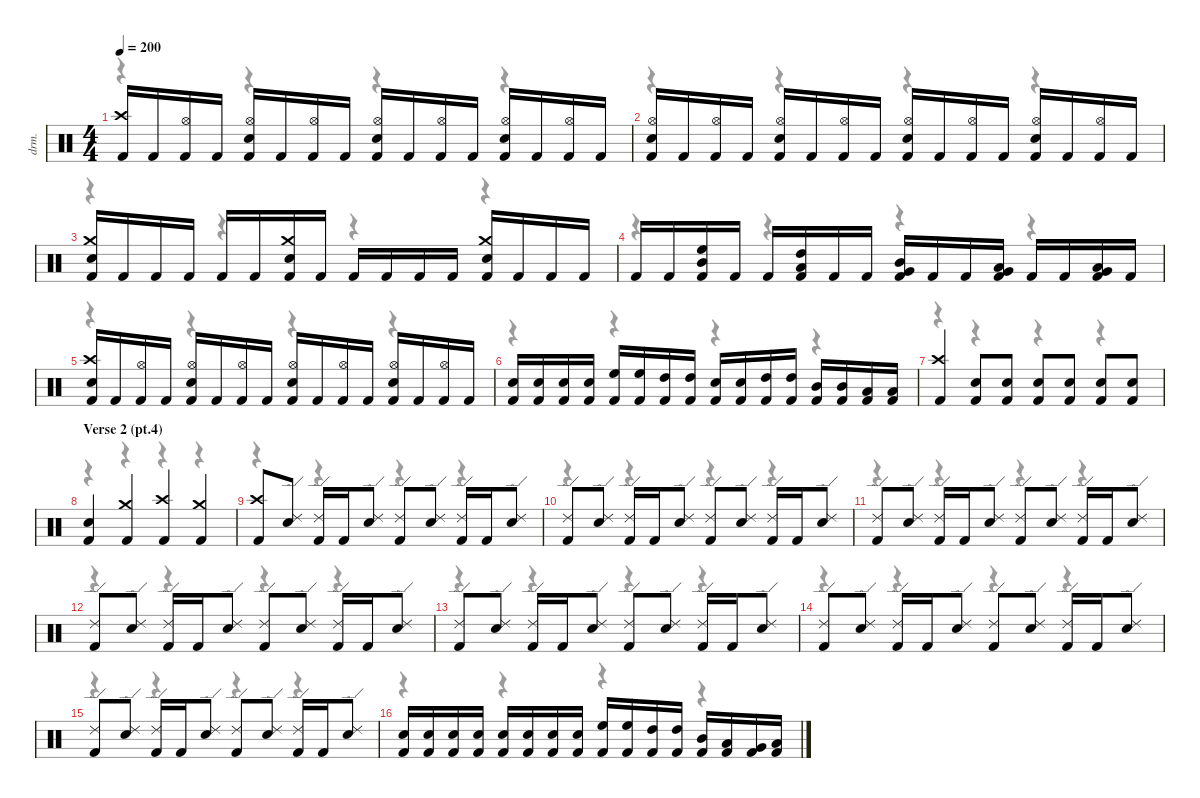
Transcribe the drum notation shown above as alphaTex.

\defaultSystemsLayout 4
\hideDynamics
\bracketExtendMode nobrackets
\otherSystemsTrackNameOrientation horizontal
\track ("David Mackintosh (Drums)" "drm.") {instrument percussion}
\staff {score}
\articulation defaults
\voice
\ts (4 4)
\tempo 200
\clef neutral
\ks c
("Kick (hit) 2" "Crash high (hit)").16{dy f} "Kick (hit) 2".16 ("Kick (hit) 2" "Hi-Hat (open)").16 "Kick (hit) 2".16 ("Kick (hit) 2" "Snare (hit) 2" "Hi-Hat (open)").16 "Kick (hit) 2".16 ("Kick (hit) 2" "Hi-Hat (open)").16 "Kick (hit) 2".16 ("Kick (hit) 2" "Snare (hit) 2" "Hi-Hat (open)").16 "Kick (hit) 2".16 ("Kick (hit) 2" "Hi-Hat (open)").16 "Kick (hit) 2".16 ("Kick (hit) 2" "Snare (hit) 2" "Hi-Hat (open)").16 "Kick (hit) 2".16 ("Kick (hit) 2" "Hi-Hat (open)").16 "Kick (hit) 2".16 |
("Kick (hit) 2" "Snare (hit) 2" "Hi-Hat (open)").16 "Kick (hit) 2".16 ("Kick (hit) 2" "Hi-Hat (open)").16 "Kick (hit) 2".16 ("Kick (hit) 2" "Snare (hit) 2" "Hi-Hat (open)").16 "Kick (hit) 2".16 ("Kick (hit) 2" "Hi-Hat (open)").16 "Kick (hit) 2".16 ("Kick (hit) 2" "Snare (hit) 2" "Hi-Hat (open)").16 "Kick (hit) 2".16 ("Kick (hit) 2" "Hi-Hat (open)").16 "Kick (hit) 2".16 ("Kick (hit) 2" "Snare (hit) 2" "Hi-Hat (open)").16 "Kick (hit) 2".16 ("Kick (hit) 2" "Hi-Hat (open)").16 "Kick (hit) 2".16 |
("Kick (hit) 2" "Snare (hit) 2" "Crash medium (hit)").16 "Kick (hit) 2".16 "Kick (hit) 2".16 "Kick (hit) 2".16 "Kick (hit) 2".16 "Kick (hit) 2".16 ("Kick (hit) 2" "Snare (hit) 2" "Crash medium (hit)").16 "Kick (hit) 2".16 "Kick (hit) 2".16 "Kick (hit) 2".16 "Kick (hit) 2".16 "Kick (hit) 2".16 ("Kick (hit) 2" "Snare (hit) 2" "Crash medium (hit)").16 "Kick (hit) 2".16 "Kick (hit) 2".16 "Kick (hit) 2".16 |
"Kick (hit) 2".16 "Kick (hit) 2".16 ("Kick (hit) 2" "High Floor Tom (hit)" "Mid Tom (hit)").16 "Kick (hit) 2".16 "Kick (hit) 2".16 ("Kick (hit) 2" "High Tom (hit)" "Low Tom (hit)").16 "Kick (hit) 2".16 "Kick (hit) 2".16 ("Kick (hit) 2" "Mid Tom (hit)" "Very Low Tom (hit)").16 "Kick (hit) 2".16 "Kick (hit) 2".16 ("Kick (hit) 2" "Low Tom (hit)" "Very Low Tom (hit)").16 "Kick (hit) 2".16 "Kick (hit) 2".16 ("Kick (hit) 2" "Very Low Tom (hit)" "Low Floor Tom (hit)").16 "Kick (hit) 2".16 |
("Kick (hit) 2" "Snare (hit) 2" "Crash high (hit)").16 "Kick (hit) 2".16 ("Kick (hit) 2" "Hi-Hat (open)").16 "Kick (hit) 2".16 ("Kick (hit) 2" "Snare (hit) 2" "Hi-Hat (open)").16 "Kick (hit) 2".16 ("Kick (hit) 2" "Hi-Hat (open)").16 "Kick (hit) 2".16 ("Kick (hit) 2" "Snare (hit) 2" "Hi-Hat (open)").16 "Kick (hit) 2".16 ("Kick (hit) 2" "Hi-Hat (open)").16 "Kick (hit) 2".16 ("Kick (hit) 2" "Snare (hit) 2" "Hi-Hat (open)").16 "Kick (hit) 2".16 ("Kick (hit) 2" "Hi-Hat (open)").16 "Kick (hit) 2".16 |
("Kick (hit) 2" "Snare (hit) 2").16 ("Kick (hit) 2" "Snare (hit) 2").16 ("Kick (hit) 2" "Snare (hit) 2").16 ("Kick (hit) 2" "Snare (hit) 2").16 ("Kick (hit) 2" "High Floor Tom (hit)").16 ("Kick (hit) 2" "High Floor Tom (hit)").16 ("Kick (hit) 2" "High Tom (hit)").16 ("Kick (hit) 2" "High Tom (hit)").16 ("Kick (hit) 2" "Snare (hit) 2").16 ("Kick (hit) 2" "Snare (hit) 2").16 ("Kick (hit) 2" "High Tom (hit)").16 ("Kick (hit) 2" "High Tom (hit)").16 ("Kick (hit) 2" "Mid Tom (hit)").16 ("Kick (hit) 2" "Mid Tom (hit)").16 ("Kick (hit) 2" "Low Tom (hit)").16 ("Kick (hit) 2" "Low Tom (hit)").16 |
("Kick (hit) 2" "Crash high (hit)").4 ("Kick (hit) 2" "Snare (hit) 2").8 ("Kick (hit) 2" "Snare (hit) 2").8 ("Kick (hit) 2" "Snare (hit) 2").8 ("Kick (hit) 2" "Snare (hit) 2").8 ("Kick (hit) 2" "Snare (hit) 2").8 ("Kick (hit) 2" "Snare (hit) 2").8 |
\section ("" "Verse 2 (pt.4)")
("Kick (hit) 2" "Snare (hit) 2").4 ("Kick (hit) 2" "Crash medium (hit)").4 ("Kick (hit) 2" "Crash high (hit)").4 ("Kick (hit) 2" "Crash medium (hit)").4 |
("Kick (hit) 2" "Crash high (hit)").8 ("Snare (hit) 2" "Ride (edge) 2").8 ("Kick (hit) 2" "Ride (edge) 2").16 "Kick (hit) 2".16 ("Snare (hit) 2" "Ride (edge) 2").8 ("Kick (hit) 2" "Ride (edge) 2").8 ("Snare (hit) 2" "Ride (edge) 2").8 ("Kick (hit) 2" "Ride (edge) 2").16 "Kick (hit) 2".16 ("Snare (hit) 2" "Ride (edge) 2").8 |
("Kick (hit) 2" "Ride (edge) 2").8 ("Snare (hit) 2" "Ride (edge) 2").8 ("Kick (hit) 2" "Ride (edge) 2").16 "Kick (hit) 2".16 ("Snare (hit) 2" "Ride (edge) 2").8 ("Kick (hit) 2" "Ride (edge) 2").8 ("Snare (hit) 2" "Ride (edge) 2").8 ("Kick (hit) 2" "Ride (edge) 2").16 "Kick (hit) 2".16 ("Snare (hit) 2" "Ride (edge) 2").8 |
("Kick (hit) 2" "Ride (edge) 2").8 ("Snare (hit) 2" "Ride (edge) 2").8 ("Kick (hit) 2" "Ride (edge) 2").16 "Kick (hit) 2".16 ("Snare (hit) 2" "Ride (edge) 2").8 ("Kick (hit) 2" "Ride (edge) 2").8 ("Snare (hit) 2" "Ride (edge) 2").8 ("Kick (hit) 2" "Ride (edge) 2").16 "Kick (hit) 2".16 ("Snare (hit) 2" "Ride (edge) 2").8 |
("Kick (hit) 2" "Ride (edge) 2").8 ("Snare (hit) 2" "Ride (edge) 2").8 ("Kick (hit) 2" "Ride (edge) 2").16 "Kick (hit) 2".16 ("Snare (hit) 2" "Ride (edge) 2").8 ("Kick (hit) 2" "Ride (edge) 2").8 ("Snare (hit) 2" "Ride (edge) 2").8 ("Kick (hit) 2" "Ride (edge) 2").16 "Kick (hit) 2".16 ("Snare (hit) 2" "Ride (edge) 2").8 |
("Kick (hit) 2" "Ride (edge) 2").8 ("Snare (hit) 2" "Ride (edge) 2").8 ("Kick (hit) 2" "Ride (edge) 2").16 "Kick (hit) 2".16 ("Snare (hit) 2" "Ride (edge) 2").8 ("Kick (hit) 2" "Ride (edge) 2").8 ("Snare (hit) 2" "Ride (edge) 2").8 ("Kick (hit) 2" "Ride (edge) 2").16 "Kick (hit) 2".16 ("Snare (hit) 2" "Ride (edge) 2").8 |
("Kick (hit) 2" "Ride (edge) 2").8 ("Snare (hit) 2" "Ride (edge) 2").8 ("Kick (hit) 2" "Ride (edge) 2").16 "Kick (hit) 2".16 ("Snare (hit) 2" "Ride (edge) 2").8 ("Kick (hit) 2" "Ride (edge) 2").8 ("Snare (hit) 2" "Ride (edge) 2").8 ("Kick (hit) 2" "Ride (edge) 2").16 "Kick (hit) 2".16 ("Snare (hit) 2" "Ride (edge) 2").8 |
("Kick (hit) 2" "Ride (edge) 2").8 ("Snare (hit) 2" "Ride (edge) 2").8 ("Kick (hit) 2" "Ride (edge) 2").16 "Kick (hit) 2".16 ("Snare (hit) 2" "Ride (edge) 2").8 ("Kick (hit) 2" "Ride (edge) 2").8 ("Snare (hit) 2" "Ride (edge) 2").8 ("Kick (hit) 2" "Ride (edge) 2").16 "Kick (hit) 2".16 ("Snare (hit) 2" "Ride (edge) 2").8 |
("Kick (hit) 2" "Snare (hit) 2").16 ("Kick (hit) 2" "Snare (hit) 2").16 ("Kick (hit) 2" "Snare (hit) 2").16 ("Kick (hit) 2" "Snare (hit) 2").16 ("Kick (hit) 2" "Snare (hit) 2").16 ("Kick (hit) 2" "Snare (hit) 2").16 ("Kick (hit) 2" "Snare (hit) 2").16 ("Kick (hit) 2" "Snare (hit) 2").16 ("Kick (hit) 2" "High Floor Tom (hit)").16 ("Kick (hit) 2" "High Floor Tom (hit)").16 ("Kick (hit) 2" "High Tom (hit)").16 ("Kick (hit) 2" "High Tom (hit)").16 ("Kick (hit) 2" "Mid Tom (hit)").16 ("Kick (hit) 2" "Low Tom (hit)").16 ("Kick (hit) 2" "Very Low Tom (hit)").16 ("Kick (hit) 2" "Low Floor Tom (hit)").16
\voice
\clef neutral
\ottava regular
\simile none
\ks c
r.4{dy mf} r.4 r.4 r.4 |
r.4 r.4 r.4 r.4 |
r.4 r.4 r.4 r.4 |
r.4 r.4 r.4 r.4 |
r.4 r.4 r.4 r.4 |
r.4 r.4 r.4 r.4 |
r.4 r.4 r.4 r.4 |
r.4 r.4 r.4 r.4 |
r.4 r.4 r.4 r.4 |
r.4 r.4 r.4 r.4 |
r.4 r.4 r.4 r.4 |
r.4 r.4 r.4 r.4 |
r.4 r.4 r.4 r.4 |
r.4 r.4 r.4 r.4 |
r.4 r.4 r.4 r.4 |
r.4 r.4 r.4 r.4
